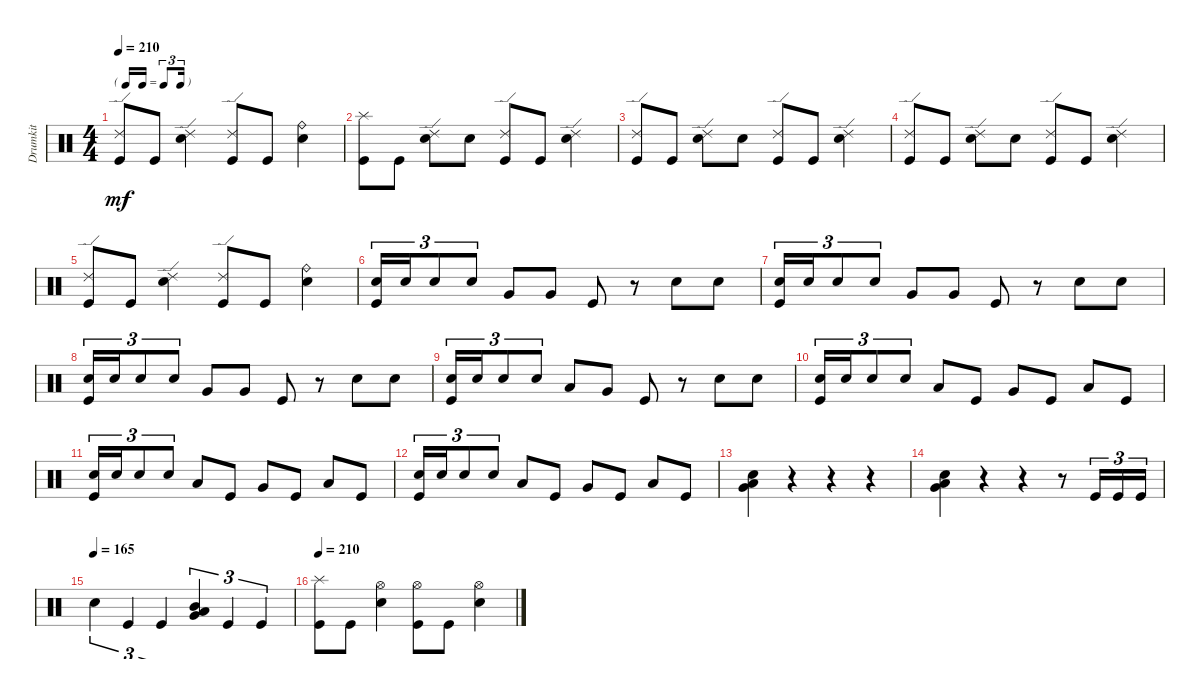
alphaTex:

\track ("Drumkit" "Drumkit") {instrument percussion}
\staff {score}
\articulation defaults
\ts (4 4)
\tf triplet16th
\tempo 210
\clef neutral
\ks c
("Kick (hit)" "Ride (edge) 2").8{dy mf} "Kick (hit)".8 ("Snare (hit) 2" "Ride (edge) 2").4 ("Kick (hit)" "Ride (edge) 2").8 "Kick (hit)".8 ("Snare (hit) 2" "Ride (bell)").4 |
("Kick (hit)" "Splash (hit)").8 "Kick (hit)".8 ("Snare (hit) 2" "Ride (edge) 2").8 "Snare (hit) 2".8 ("Kick (hit)" "Ride (edge) 2").8 "Kick (hit)".8 ("Snare (hit) 2" "Ride (edge) 2").4 |
("Kick (hit)" "Ride (edge) 2").8 "Kick (hit)".8 ("Snare (hit) 2" "Ride (edge) 2").8 "Snare (hit) 2".8 ("Kick (hit)" "Ride (edge) 2").8 "Kick (hit)".8 ("Snare (hit) 2" "Ride (edge) 2").4 |
("Kick (hit)" "Ride (edge) 2").8 "Kick (hit)".8 ("Snare (hit) 2" "Ride (edge) 2").8 "Snare (hit) 2".8 ("Kick (hit)" "Ride (edge) 2").8 "Kick (hit)".8 ("Snare (hit) 2" "Ride (edge) 2").4 |
("Kick (hit)" "Ride (edge) 2").8 "Kick (hit)".8 ("Snare (hit) 2" "Ride (edge) 2").4 ("Kick (hit)" "Ride (edge) 2").8 "Kick (hit)".8 ("Snare (hit) 2" "Ride (bell)").4 |
("Snare (hit) 2" "Kick (hit)").16{tu (3 2)} "Snare (hit) 2".16{tu (3 2)} "Snare (hit) 2".8{tu (3 2)} "Snare (hit) 2".8{tu (3 2)} "Very Low Tom (hit)".8 "Very Low Tom (hit)".8 "Kick (hit)".8 r.8 "Snare (hit) 2".8 "Snare (hit) 2".8 |
("Snare (hit) 2" "Kick (hit)").16{tu (3 2)} "Snare (hit) 2".16{tu (3 2)} "Snare (hit) 2".8{tu (3 2)} "Snare (hit) 2".8{tu (3 2)} "Very Low Tom (hit)".8 "Very Low Tom (hit)".8 "Kick (hit)".8 r.8 "Snare (hit) 2".8 "Snare (hit) 2".8 |
("Snare (hit) 2" "Kick (hit)").16{tu (3 2)} "Snare (hit) 2".16{tu (3 2)} "Snare (hit) 2".8{tu (3 2)} "Snare (hit) 2".8{tu (3 2)} "Very Low Tom (hit)".8 "Very Low Tom (hit)".8 "Kick (hit)".8 r.8 "Snare (hit) 2".8 "Snare (hit) 2".8 |
("Snare (hit) 2" "Kick (hit)").16{tu (3 2)} "Snare (hit) 2".16{tu (3 2)} "Snare (hit) 2".8{tu (3 2)} "Snare (hit) 2".8{tu (3 2)} "Low Tom (hit)".8 "Very Low Tom (hit)".8 "Kick (hit)".8 r.8 "Snare (hit) 2".8 "Snare (hit) 2".8 |
("Snare (hit) 2" "Kick (hit)").16{tu (3 2)} "Snare (hit) 2".16{tu (3 2)} "Snare (hit) 2".8{tu (3 2)} "Snare (hit) 2".8{tu (3 2)} "Low Tom (hit)".8 "Kick (hit)".8 "Very Low Tom (hit)".8 "Kick (hit)".8 "Low Floor Tom (hit)".8 "Kick (hit)".8 |
("Snare (hit) 2" "Kick (hit)").16{tu (3 2)} "Snare (hit) 2".16{tu (3 2)} "Snare (hit) 2".8{tu (3 2)} "Snare (hit) 2".8{tu (3 2)} "Low Tom (hit)".8 "Kick (hit)".8 "Very Low Tom (hit)".8 "Kick (hit)".8 "Low Floor Tom (hit)".8 "Kick (hit)".8 |
("Snare (hit) 2" "Kick (hit)").16{tu (3 2)} "Snare (hit) 2".16{tu (3 2)} "Snare (hit) 2".8{tu (3 2)} "Snare (hit) 2".8{tu (3 2)} "Low Tom (hit)".8 "Kick (hit)".8 "Very Low Tom (hit)".8 "Kick (hit)".8 "Low Floor Tom (hit)".8 "Kick (hit)".8 |
("Low Floor Tom (hit)" "Very Low Tom (hit)" "Snare (hit) 2").4 r.4 r.4 r.4 |
("Low Floor Tom (hit)" "Very Low Tom (hit)" "Snare (hit) 2").4 r.4 r.4 r.8 "Kick (hit)".16{tu (3 2)} "Kick (hit)".16{tu (3 2)} "Kick (hit)".16{tu (3 2)} |
\tempo (165)
"Snare (hit) 2".4{tu (3 2)} "Kick (hit)".4{tu (3 2)} "Kick (hit)".4{tu (3 2)} ("Very Low Tom (hit)" "Low Floor Tom (hit)" "Mid Tom (hit)").4{tu (3 2)} "Kick (hit)".4{tu (3 2)} "Kick (hit)".4{tu (3 2)} |
\tempo 210
("Kick (hit)" "Splash (hit)").8 "Kick (hit)".8 ("Snare (hit) 2" "Hi-Hat (open)").4 ("Kick (hit)" "Hi-Hat (open)").8 "Kick (hit)".8 ("Snare (hit) 2" "Hi-Hat (open)").4
